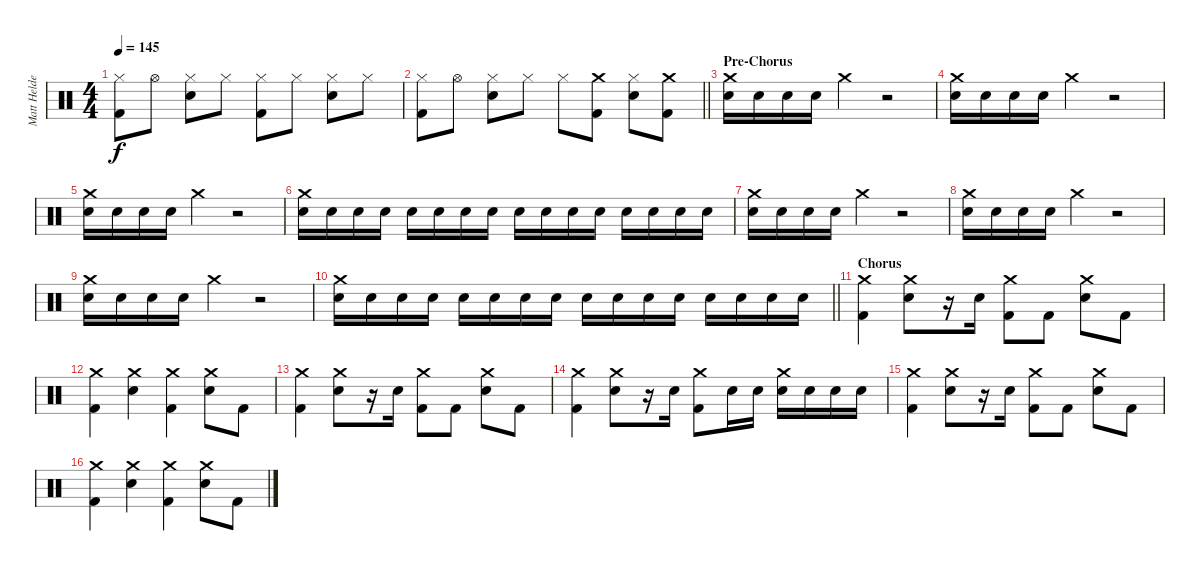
\track ("Matt Helders" "Matt Helde") {instrument percussion}
\staff {score}
\articulation defaults
\ts (4 4)
\tempo 145
\clef neutral
\ks c
("Kick (hit) 2" "Hi-Hat (closed)").8{dy f} "Hi-Hat (open)".8 ("Electric Snare (hit)" "Hi-Hat (closed)").8 "Hi-Hat (closed)".8 ("Kick (hit) 2" "Hi-Hat (closed)").8 "Hi-Hat (closed)".8 ("Electric Snare (hit)" "Hi-Hat (closed)").8 "Hi-Hat (closed)".8 |
\barLineRight lightlight
("Kick (hit) 2" "Hi-Hat (closed)").8 "Hi-Hat (open)".8 ("Electric Snare (hit)" "Hi-Hat (closed)").8 "Hi-Hat (closed)".8 "Hi-Hat (closed)".8 ("Kick (hit) 2" "Crash medium (hit)").8 ("Electric Snare (hit)" "Hi-Hat (closed)").8 ("Kick (hit) 2" "Crash medium (hit)").8 |
\section ("" "Pre-Chorus")
("Electric Snare (hit)" "Crash medium (hit)").16 "Electric Snare (hit)".16 "Electric Snare (hit)".16 "Electric Snare (hit)".16 "Crash medium (hit)".4 r.2 |
("Electric Snare (hit)" "Crash medium (hit)").16 "Electric Snare (hit)".16 "Electric Snare (hit)".16 "Electric Snare (hit)".16 "Crash medium (hit)".4 r.2 |
("Electric Snare (hit)" "Crash medium (hit)").16 "Electric Snare (hit)".16 "Electric Snare (hit)".16 "Electric Snare (hit)".16 "Crash medium (hit)".4 r.2 |
("Electric Snare (hit)" "Crash medium (hit)").16 "Electric Snare (hit)".16 "Electric Snare (hit)".16 "Electric Snare (hit)".16 "Electric Snare (hit)".16 "Electric Snare (hit)".16 "Electric Snare (hit)".16 "Electric Snare (hit)".16 "Electric Snare (hit)".16 "Electric Snare (hit)".16 "Electric Snare (hit)".16 "Electric Snare (hit)".16 "Electric Snare (hit)".16 "Electric Snare (hit)".16 "Electric Snare (hit)".16 "Electric Snare (hit)".16 |
("Electric Snare (hit)" "Crash medium (hit)").16 "Electric Snare (hit)".16 "Electric Snare (hit)".16 "Electric Snare (hit)".16 "Crash medium (hit)".4 r.2 |
("Electric Snare (hit)" "Crash medium (hit)").16 "Electric Snare (hit)".16 "Electric Snare (hit)".16 "Electric Snare (hit)".16 "Crash medium (hit)".4 r.2 |
("Electric Snare (hit)" "Crash medium (hit)").16 "Electric Snare (hit)".16 "Electric Snare (hit)".16 "Electric Snare (hit)".16 "Crash medium (hit)".4 r.2 |
\barLineRight lightlight
("Electric Snare (hit)" "Crash medium (hit)").16 "Electric Snare (hit)".16 "Electric Snare (hit)".16 "Electric Snare (hit)".16 "Electric Snare (hit)".16 "Electric Snare (hit)".16 "Electric Snare (hit)".16 "Electric Snare (hit)".16 "Electric Snare (hit)".16 "Electric Snare (hit)".16 "Electric Snare (hit)".16 "Electric Snare (hit)".16 "Electric Snare (hit)".16 "Electric Snare (hit)".16 "Electric Snare (hit)".16 "Electric Snare (hit)".16 |
\section ("" "Chorus")
("Kick (hit) 2" "Crash medium (hit)").4 ("Electric Snare (hit)" "Crash medium (hit)").8 r.16 "Electric Snare (hit)".16 ("Kick (hit) 2" "Crash medium (hit)").8 "Kick (hit) 2".8 ("Electric Snare (hit)" "Crash medium (hit)").8 "Kick (hit) 2".8 |
("Kick (hit) 2" "Crash medium (hit)").4 ("Electric Snare (hit)" "Crash medium (hit)").4 ("Kick (hit) 2" "Crash medium (hit)").4 ("Electric Snare (hit)" "Crash medium (hit)").8 "Kick (hit) 2".8 |
("Kick (hit) 2" "Crash medium (hit)").4 ("Electric Snare (hit)" "Crash medium (hit)").8 r.16 "Electric Snare (hit)".16 ("Kick (hit) 2" "Crash medium (hit)").8 "Kick (hit) 2".8 ("Electric Snare (hit)" "Crash medium (hit)").8 "Kick (hit) 2".8 |
("Kick (hit) 2" "Crash medium (hit)").4 ("Electric Snare (hit)" "Crash medium (hit)").8 r.16 "Electric Snare (hit)".16 ("Kick (hit) 2" "Crash medium (hit)").8 "Electric Snare (hit)".16 "Electric Snare (hit)".16 ("Electric Snare (hit)" "Crash medium (hit)").16 "Electric Snare (hit)".16 "Electric Snare (hit)".16 "Electric Snare (hit)".16 |
("Kick (hit) 2" "Crash medium (hit)").4 ("Electric Snare (hit)" "Crash medium (hit)").8 r.16 "Electric Snare (hit)".16 ("Kick (hit) 2" "Crash medium (hit)").8 "Kick (hit) 2".8 ("Electric Snare (hit)" "Crash medium (hit)").8 "Kick (hit) 2".8 |
("Kick (hit) 2" "Crash medium (hit)").4 ("Electric Snare (hit)" "Crash medium (hit)").4 ("Kick (hit) 2" "Crash medium (hit)").4 ("Electric Snare (hit)" "Crash medium (hit)").8 "Kick (hit) 2".8
